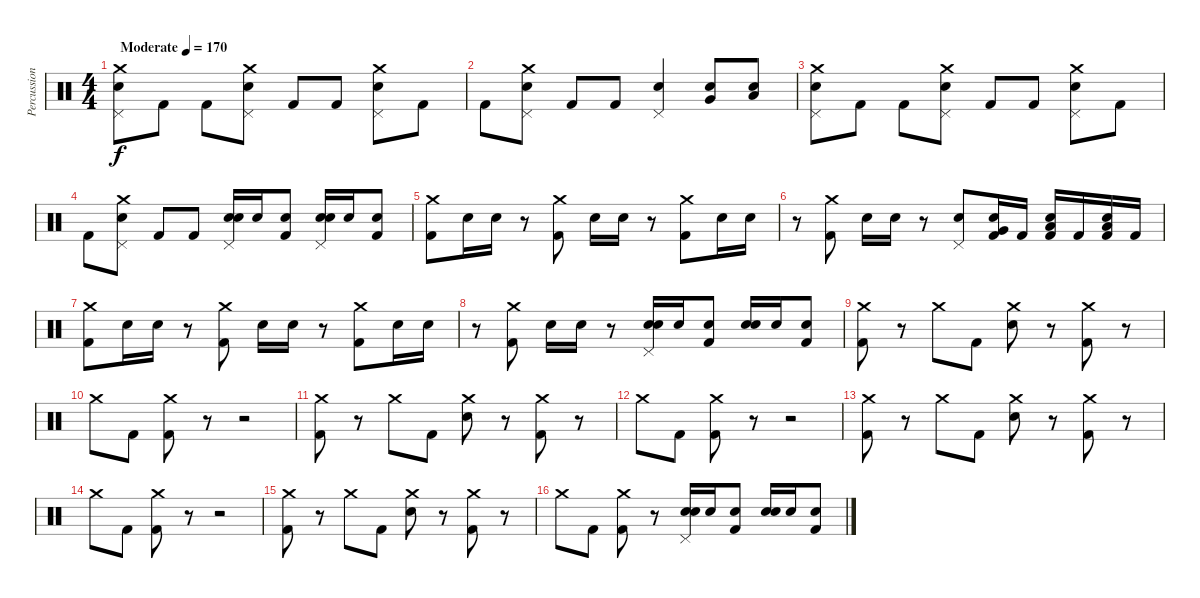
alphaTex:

\track ("Percussion" "Percussion") {instrument percussion}
\staff {score}
\articulation defaults
\ts (4 4)
\tempo (170 "Moderate")
\clef neutral
\ks c
("Crash medium (hit)" "Electric Snare (hit)" "Pedal Hi-Hat (hit)").8{dy f} "Kick (hit) 2".8 "Kick (hit) 2".8 ("Crash medium (hit)" "Electric Snare (hit)" "Pedal Hi-Hat (hit)").8 "Kick (hit) 2".8 "Kick (hit) 2".8 ("Crash medium (hit)" "Electric Snare (hit)" "Pedal Hi-Hat (hit)").8 "Kick (hit) 2".8 |
"Kick (hit) 2".8 ("Crash medium (hit)" "Electric Snare (hit)" "Pedal Hi-Hat (hit)").8 "Kick (hit) 2".8 "Kick (hit) 2".8 ("Electric Snare (hit)" "Pedal Hi-Hat (hit)").4 ("Very Low Tom (hit)" "Electric Snare (hit)").8 ("Low Floor Tom (hit)" "Electric Snare (hit)").8 |
("Crash medium (hit)" "Electric Snare (hit)" "Pedal Hi-Hat (hit)").8 "Kick (hit) 2".8 "Kick (hit) 2".8 ("Crash medium (hit)" "Electric Snare (hit)" "Pedal Hi-Hat (hit)").8 "Kick (hit) 2".8 "Kick (hit) 2".8 ("Crash medium (hit)" "Electric Snare (hit)" "Pedal Hi-Hat (hit)").8 "Kick (hit) 2".8 |
"Kick (hit) 2".8 ("Crash medium (hit)" "Electric Snare (hit)" "Pedal Hi-Hat (hit)").8 "Kick (hit) 2".8 "Kick (hit) 2".8 ("Electric Snare (hit)" "Electric Snare (hit)" "Pedal Hi-Hat (hit)").16 "Electric Snare (hit)".16 ("Electric Snare (hit)" "Kick (hit) 2").8 ("Electric Snare (hit)" "Electric Snare (hit)" "Pedal Hi-Hat (hit)").16 "Electric Snare (hit)".16 ("Electric Snare (hit)" "Kick (hit) 2").8 |
("Crash medium (hit)" "Kick (hit) 2").8 "Electric Snare (hit)".16 "Electric Snare (hit)".16 r.8 ("Crash medium (hit)" "Kick (hit) 2").8 "Electric Snare (hit)".16 "Electric Snare (hit)".16 r.8 ("Crash medium (hit)" "Kick (hit) 2").8 "Electric Snare (hit)".16 "Electric Snare (hit)".16 |
r.8 ("Crash medium (hit)" "Kick (hit) 2").8 "Electric Snare (hit)".16 "Electric Snare (hit)".16 r.8 ("Electric Snare (hit)" "Pedal Hi-Hat (hit)").8 ("Very Low Tom (hit)" "Electric Snare (hit)" "Kick (hit) 2").16 "Kick (hit) 2".16 ("Low Floor Tom (hit)" "Electric Snare (hit)" "Kick (hit) 2").16 "Kick (hit) 2".16 ("Low Floor Tom (hit)" "Electric Snare (hit)" "Kick (hit) 2").16 "Kick (hit) 2".16 |
("Crash medium (hit)" "Kick (hit) 2").8 "Electric Snare (hit)".16 "Electric Snare (hit)".16 r.8 ("Crash medium (hit)" "Kick (hit) 2").8 "Electric Snare (hit)".16 "Electric Snare (hit)".16 r.8 ("Crash medium (hit)" "Kick (hit) 2").8 "Electric Snare (hit)".16 "Electric Snare (hit)".16 |
r.8 ("Crash medium (hit)" "Kick (hit) 2").8 "Electric Snare (hit)".16 "Electric Snare (hit)".16 r.8 ("Pedal Hi-Hat (hit)" "Electric Snare (hit)" "Electric Snare (hit)").16 "Electric Snare (hit)".16 ("Electric Snare (hit)" "Kick (hit) 2").8 ("Electric Snare (hit)" "Electric Snare (hit)").16 "Electric Snare (hit)".16 ("Electric Snare (hit)" "Kick (hit) 2").8 |
("Crash medium (hit)" "Kick (hit) 2").8 r.8 "Crash medium (hit)".8 "Kick (hit) 2".8 ("Crash medium (hit)" "Electric Snare (hit)").8 r.8 ("Crash medium (hit)" "Kick (hit) 2").8 r.8 |
"Crash medium (hit)".8 "Kick (hit) 2".8 ("Crash medium (hit)" "Kick (hit) 2").8 r.8 r.2 |
("Crash medium (hit)" "Kick (hit) 2").8 r.8 "Crash medium (hit)".8 "Kick (hit) 2".8 ("Crash medium (hit)" "Electric Snare (hit)").8 r.8 ("Crash medium (hit)" "Kick (hit) 2").8 r.8 |
"Crash medium (hit)".8 "Kick (hit) 2".8 ("Crash medium (hit)" "Kick (hit) 2").8 r.8 r.2 |
("Crash medium (hit)" "Kick (hit) 2").8 r.8 "Crash medium (hit)".8 "Kick (hit) 2".8 ("Crash medium (hit)" "Electric Snare (hit)").8 r.8 ("Crash medium (hit)" "Kick (hit) 2").8 r.8 |
"Crash medium (hit)".8 "Kick (hit) 2".8 ("Crash medium (hit)" "Kick (hit) 2").8 r.8 r.2 |
("Crash medium (hit)" "Kick (hit) 2").8 r.8 "Crash medium (hit)".8 "Kick (hit) 2".8 ("Crash medium (hit)" "Electric Snare (hit)").8 r.8 ("Crash medium (hit)" "Kick (hit) 2").8 r.8 |
"Crash medium (hit)".8 "Kick (hit) 2".8 ("Crash medium (hit)" "Kick (hit) 2").8 r.8 ("Pedal Hi-Hat (hit)" "Electric Snare (hit)" "Electric Snare (hit)").16 "Electric Snare (hit)".16 ("Electric Snare (hit)" "Kick (hit) 2").8 ("Electric Snare (hit)" "Electric Snare (hit)").16 "Electric Snare (hit)".16 ("Electric Snare (hit)" "Kick (hit) 2").8
